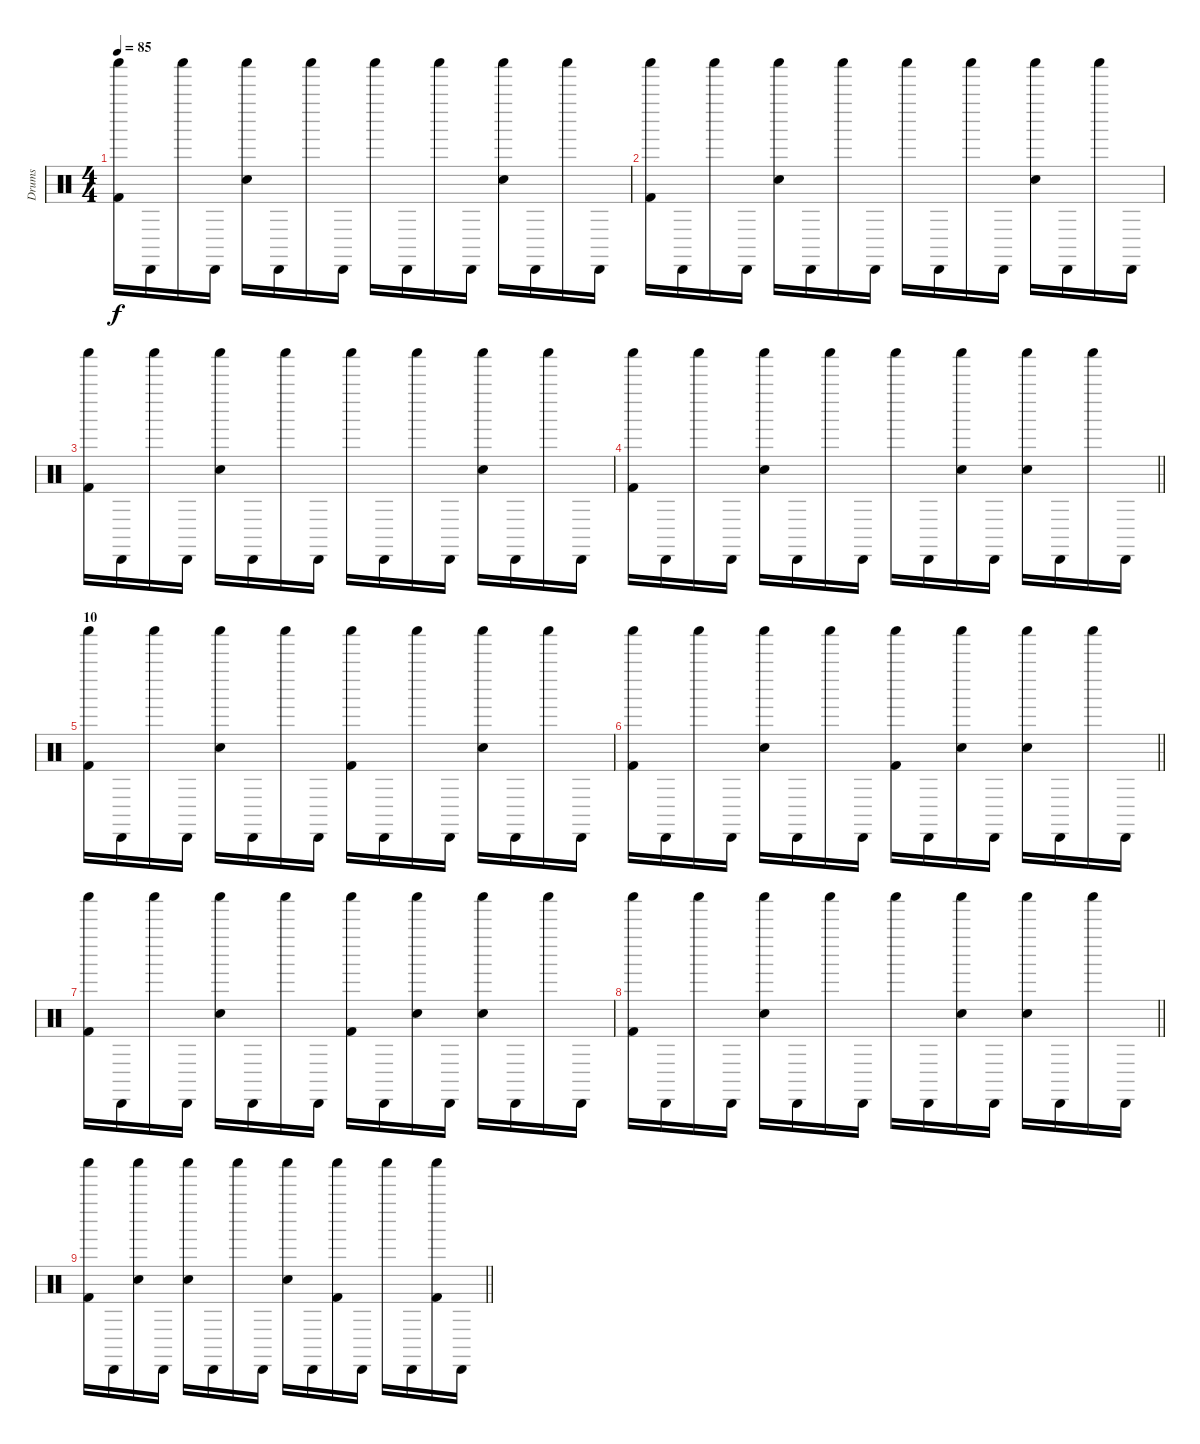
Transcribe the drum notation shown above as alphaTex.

\track ("Drums" "Drums") {instrument percussion}
\staff {score}
\articulation defaults
\ts (4 4)
\tempo 85
\clef neutral
\ks c
("Shaker (hit)" "Kick (hit) 2").16{dy f} "Cabasa (hit)".16 "Shaker (hit)".16 "Cabasa (hit)".16 ("Shaker (hit)" "Electric Snare (hit)").16 "Cabasa (hit)".16 "Shaker (hit)".16 "Cabasa (hit)".16 "Shaker (hit)".16 "Cabasa (hit)".16 "Shaker (hit)".16 "Cabasa (hit)".16 ("Shaker (hit)" "Electric Snare (hit)").16 "Cabasa (hit)".16 "Shaker (hit)".16 "Cabasa (hit)".16 |
("Shaker (hit)" "Kick (hit) 2").16 "Cabasa (hit)".16 "Shaker (hit)".16 "Cabasa (hit)".16 ("Shaker (hit)" "Electric Snare (hit)").16 "Cabasa (hit)".16 "Shaker (hit)".16 "Cabasa (hit)".16 "Shaker (hit)".16 "Cabasa (hit)".16 "Shaker (hit)".16 "Cabasa (hit)".16 ("Shaker (hit)" "Electric Snare (hit)").16 "Cabasa (hit)".16 "Shaker (hit)".16 "Cabasa (hit)".16 |
("Shaker (hit)" "Kick (hit) 2").16 "Cabasa (hit)".16 "Shaker (hit)".16 "Cabasa (hit)".16 ("Shaker (hit)" "Electric Snare (hit)").16 "Cabasa (hit)".16 "Shaker (hit)".16 "Cabasa (hit)".16 "Shaker (hit)".16 "Cabasa (hit)".16 "Shaker (hit)".16 "Cabasa (hit)".16 ("Shaker (hit)" "Electric Snare (hit)").16 "Cabasa (hit)".16 "Shaker (hit)".16 "Cabasa (hit)".16 |
\barLineRight lightlight
("Shaker (hit)" "Kick (hit) 2").16 "Cabasa (hit)".16 "Shaker (hit)".16 "Cabasa (hit)".16 ("Shaker (hit)" "Electric Snare (hit)").16 "Cabasa (hit)".16 "Shaker (hit)".16 "Cabasa (hit)".16 "Shaker (hit)".16 "Cabasa (hit)".16 ("Shaker (hit)" "Electric Snare (hit)").16 "Cabasa (hit)".16 ("Shaker (hit)" "Electric Snare (hit)").16 "Cabasa (hit)".16 "Shaker (hit)".16 "Cabasa (hit)".16 |
\section ("" "10")
("Shaker (hit)" "Kick (hit) 2").16 "Cabasa (hit)".16 "Shaker (hit)".16 "Cabasa (hit)".16 ("Shaker (hit)" "Electric Snare (hit)").16 "Cabasa (hit)".16 "Shaker (hit)".16 "Cabasa (hit)".16 ("Shaker (hit)" "Kick (hit) 2").16 "Cabasa (hit)".16 "Shaker (hit)".16 "Cabasa (hit)".16 ("Shaker (hit)" "Electric Snare (hit)").16 "Cabasa (hit)".16 "Shaker (hit)".16 "Cabasa (hit)".16 |
\barLineRight lightlight
("Shaker (hit)" "Kick (hit) 2").16 "Cabasa (hit)".16 "Shaker (hit)".16 "Cabasa (hit)".16 ("Shaker (hit)" "Electric Snare (hit)").16 "Cabasa (hit)".16 "Shaker (hit)".16 "Cabasa (hit)".16 ("Shaker (hit)" "Kick (hit) 2").16 "Cabasa (hit)".16 ("Shaker (hit)" "Electric Snare (hit)").16 "Cabasa (hit)".16 ("Shaker (hit)" "Electric Snare (hit)").16 "Cabasa (hit)".16 "Shaker (hit)".16 "Cabasa (hit)".16 |
("Shaker (hit)" "Kick (hit) 2").16 "Cabasa (hit)".16 "Shaker (hit)".16 "Cabasa (hit)".16 ("Shaker (hit)" "Electric Snare (hit)").16 "Cabasa (hit)".16 "Shaker (hit)".16 "Cabasa (hit)".16 ("Shaker (hit)" "Kick (hit) 2").16 "Cabasa (hit)".16 ("Shaker (hit)" "Electric Snare (hit)").16 "Cabasa (hit)".16 ("Shaker (hit)" "Electric Snare (hit)").16 "Cabasa (hit)".16 "Shaker (hit)".16 "Cabasa (hit)".16 |
\barLineRight lightlight
("Shaker (hit)" "Kick (hit) 2").16 "Cabasa (hit)".16 "Shaker (hit)".16 "Cabasa (hit)".16 ("Shaker (hit)" "Electric Snare (hit)").16 "Cabasa (hit)".16 "Shaker (hit)".16 "Cabasa (hit)".16 "Shaker (hit)".16 "Cabasa (hit)".16 ("Shaker (hit)" "Electric Snare (hit)").16 "Cabasa (hit)".16 ("Shaker (hit)" "Electric Snare (hit)").16 "Cabasa (hit)".16 "Shaker (hit)".16 "Cabasa (hit)".16 |
\barLineRight lightlight
("Shaker (hit)" "Kick (hit) 2").16 "Cabasa (hit)".16 ("Shaker (hit)" "Electric Snare (hit)").16 "Cabasa (hit)".16 ("Shaker (hit)" "Electric Snare (hit)").16 "Cabasa (hit)".16 "Shaker (hit)".16 "Cabasa (hit)".16 ("Shaker (hit)" "Electric Snare (hit)").16 "Cabasa (hit)".16 ("Shaker (hit)" "Kick (hit) 2").16 "Cabasa (hit)".16 "Shaker (hit)".16 "Cabasa (hit)".16 ("Shaker (hit)" "Kick (hit) 2").16 "Cabasa (hit)".16
